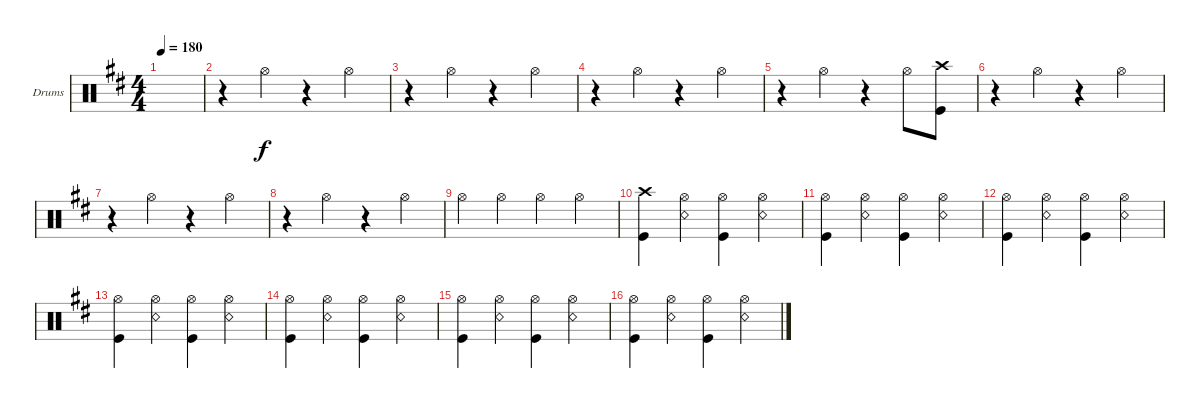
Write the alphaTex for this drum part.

\defaultSystemsLayout 4
\bracketExtendMode groupsimilarinstruments
\firstSystemTrackNameOrientation horizontal
\otherSystemsTrackNameOrientation horizontal
\track ("Drumkit" "Drums") {instrument percussion}
\staff {score}
\articulation defaults
\ts (4 4)
\tempo 180
\clef neutral
\ks bminor
|
r.4 "Hi-Hat (open)".4 r.4 "Hi-Hat (open)".4 |
r.4 "Hi-Hat (open)".4 r.4 "Hi-Hat (open)".4 |
r.4 "Hi-Hat (open)".4 r.4 "Hi-Hat (open)".4 |
r.4 "Hi-Hat (open)".4 r.4 "Hi-Hat (open)".8 ("Kick (hit)" "Crash high (hit)").8 |
r.4 "Hi-Hat (open)".4 r.4 "Hi-Hat (open)".4 |
r.4 "Hi-Hat (open)".4 r.4 "Hi-Hat (open)".4 |
r.4 "Hi-Hat (open)".4 r.4 "Hi-Hat (open)".4 |
"Hi-Hat (open)".4 "Hi-Hat (open)".4 "Hi-Hat (open)".4 "Hi-Hat (open)".4 |
("Crash high (hit)" "Kick (hit)").4 ("Hi-Hat (open)" "Snare (rim shot)").4 ("Hi-Hat (open)" "Kick (hit)").4 ("Hi-Hat (open)" "Snare (rim shot)").4 |
("Kick (hit)" "Hi-Hat (open)").4 ("Hi-Hat (open)" "Snare (rim shot)").4 ("Hi-Hat (open)" "Kick (hit)").4 ("Hi-Hat (open)" "Snare (rim shot)").4 |
("Kick (hit)" "Hi-Hat (open)").4 ("Hi-Hat (open)" "Snare (rim shot)").4 ("Hi-Hat (open)" "Kick (hit)").4 ("Hi-Hat (open)" "Snare (rim shot)").4 |
("Kick (hit)" "Hi-Hat (open)").4 ("Hi-Hat (open)" "Snare (rim shot)").4 ("Hi-Hat (open)" "Kick (hit)").4 ("Hi-Hat (open)" "Snare (rim shot)").4 |
("Kick (hit)" "Hi-Hat (open)").4 ("Hi-Hat (open)" "Snare (rim shot)").4 ("Hi-Hat (open)" "Kick (hit)").4 ("Hi-Hat (open)" "Snare (rim shot)").4 |
("Kick (hit)" "Hi-Hat (open)").4 ("Hi-Hat (open)" "Snare (rim shot)").4 ("Hi-Hat (open)" "Kick (hit)").4 ("Hi-Hat (open)" "Snare (rim shot)").4 |
("Kick (hit)" "Hi-Hat (open)").4 ("Hi-Hat (open)" "Snare (rim shot)").4 ("Hi-Hat (open)" "Kick (hit)").4 ("Hi-Hat (open)" "Snare (rim shot)").4
